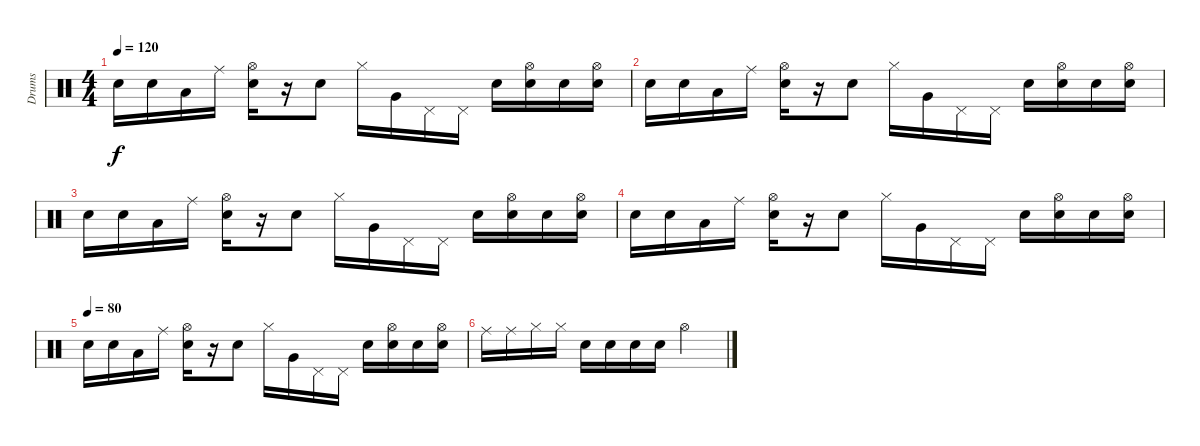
\track ("Drums" "Drums") {instrument percussion}
\staff {score}
\articulation defaults
\ts (4 4)
\tempo 120
\clef neutral
\ks c "Snare (hit) 2".16{dy f} "Snare (hit) 2".16 "Low Floor Tom (hit)".16 "Ride (middle)".16
("Electric Snare (hit)" "Hi-Hat (open)").16 r.16 "Electric Snare (hit)".8 "Hi-Hat (closed)".16 "Very Low Tom (hit)".16 "Pedal Hi-Hat (hit)".16 "Pedal Hi-Hat (hit)".16 "Electric Snare (hit)".16 ("Electric Snare (hit)" "Hi-Hat (open)").16 "Electric Snare (hit)".16 ("Electric Snare (hit)" "Hi-Hat (open)").16 |
"Snare (hit) 2".16 "Snare (hit) 2".16 "Low Floor Tom (hit)".16 "Ride (middle)".16 ("Electric Snare (hit)" "Hi-Hat (open)").16 r.16 "Electric Snare (hit)".8 "Hi-Hat (closed)".16 "Very Low Tom (hit)".16 "Pedal Hi-Hat (hit)".16 "Pedal Hi-Hat (hit)".16 "Electric Snare (hit)".16 ("Electric Snare (hit)" "Hi-Hat (open)").16 "Electric Snare (hit)".16 ("Electric Snare (hit)" "Hi-Hat (open)").16 |
"Snare (hit) 2".16 "Snare (hit) 2".16 "Low Floor Tom (hit)".16 "Ride (middle)".16 ("Electric Snare (hit)" "Hi-Hat (open)").16 r.16 "Electric Snare (hit)".8 "Hi-Hat (closed)".16 "Very Low Tom (hit)".16 "Pedal Hi-Hat (hit)".16 "Pedal Hi-Hat (hit)".16 "Electric Snare (hit)".16 ("Electric Snare (hit)" "Hi-Hat (open)").16 "Electric Snare (hit)".16 ("Electric Snare (hit)" "Hi-Hat (open)").16 |
"Snare (hit) 2".16 "Snare (hit) 2".16 "Low Floor Tom (hit)".16 "Ride (middle)".16 ("Electric Snare (hit)" "Hi-Hat (open)").16 r.16 "Electric Snare (hit)".8 "Hi-Hat (closed)".16 "Very Low Tom (hit)".16 "Pedal Hi-Hat (hit)".16 "Pedal Hi-Hat (hit)".16 "Electric Snare (hit)".16 ("Electric Snare (hit)" "Hi-Hat (open)").16 "Electric Snare (hit)".16 ("Electric Snare (hit)" "Hi-Hat (open)").16 |
\tempo (80)
"Snare (hit) 2".16 "Snare (hit) 2".16 "Low Floor Tom (hit)".16 "Ride (middle)".16 ("Electric Snare (hit)" "Hi-Hat (open)").16 r.16 "Electric Snare (hit)".8 "Hi-Hat (closed)".16 "Very Low Tom (hit)".16 "Pedal Hi-Hat (hit)".16 "Pedal Hi-Hat (hit)".16 "Electric Snare (hit)".16 ("Electric Snare (hit)" "Hi-Hat (open)").16 "Electric Snare (hit)".16 ("Electric Snare (hit)" "Hi-Hat (open)").16 |
"Ride (middle)".16 "Ride (middle)".16 "Hi-Hat (closed)".16 "Hi-Hat (closed)".16 "Electric Snare (hit)".16 "Electric Snare (hit)".16 "Electric Snare (hit)".16 "Electric Snare (hit)".16 "Hi-Hat (open)".2
